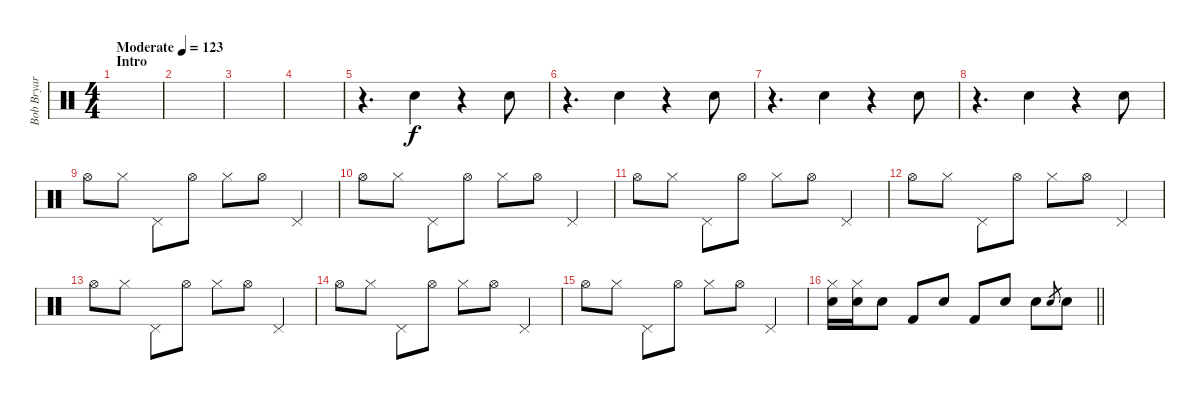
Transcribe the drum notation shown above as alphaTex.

\track ("Bob Bryar" "Bob Bryar") {instrument percussion}
\staff {score}
\articulation defaults
\ts (4 4)
\section ("" "Intro")
\tempo (123 "Moderate")
\clef neutral
\ks c
|
|
|
|
r.4{d} "Hand Clap (hit)".4 r.4 "Hand Clap (hit)".8 |
r.4{d} "Hand Clap (hit)".4 r.4 "Hand Clap (hit)".8 |
r.4{d} "Hand Clap (hit)".4 r.4 "Hand Clap (hit)".8 |
r.4{d} "Hand Clap (hit)".4 r.4 "Hand Clap (hit)".8 |
"Hi-Hat (open)".8 "Hi-Hat (closed)".8 "Pedal Hi-Hat (hit)".8 "Hi-Hat (open)".8 "Hi-Hat (closed)".8 "Hi-Hat (open)".8 "Pedal Hi-Hat (hit)".4 |
"Hi-Hat (open)".8 "Hi-Hat (closed)".8 "Pedal Hi-Hat (hit)".8 "Hi-Hat (open)".8 "Hi-Hat (closed)".8 "Hi-Hat (open)".8 "Pedal Hi-Hat (hit)".4 |
"Hi-Hat (open)".8 "Hi-Hat (closed)".8 "Pedal Hi-Hat (hit)".8 "Hi-Hat (open)".8 "Hi-Hat (closed)".8 "Hi-Hat (open)".8 "Pedal Hi-Hat (hit)".4 |
"Hi-Hat (open)".8 "Hi-Hat (closed)".8 "Pedal Hi-Hat (hit)".8 "Hi-Hat (open)".8 "Hi-Hat (closed)".8 "Hi-Hat (open)".8 "Pedal Hi-Hat (hit)".4 |
"Hi-Hat (open)".8 "Hi-Hat (closed)".8 "Pedal Hi-Hat (hit)".8 "Hi-Hat (open)".8 "Hi-Hat (closed)".8 "Hi-Hat (open)".8 "Pedal Hi-Hat (hit)".4 |
"Hi-Hat (open)".8 "Hi-Hat (closed)".8 "Pedal Hi-Hat (hit)".8 "Hi-Hat (open)".8 "Hi-Hat (closed)".8 "Hi-Hat (open)".8 "Pedal Hi-Hat (hit)".4 |
"Hi-Hat (open)".8 "Hi-Hat (closed)".8 "Pedal Hi-Hat (hit)".8 "Hi-Hat (open)".8 "Hi-Hat (closed)".8 "Hi-Hat (open)".8 "Pedal Hi-Hat (hit)".4 |
\barLineRight lightlight
("Hi-Hat (closed)" "Snare (hit) 2").16 ("Hi-Hat (closed)" "Snare (hit) 2").16 "Snare (hit) 2".8 "Kick (hit) 2".8 "Snare (hit) 2".8 "Kick (hit) 2".8 "Snare (hit) 2".8 "Snare (hit) 2".8 "Snare (hit) 2".8{gr} "Snare (hit) 2".8
